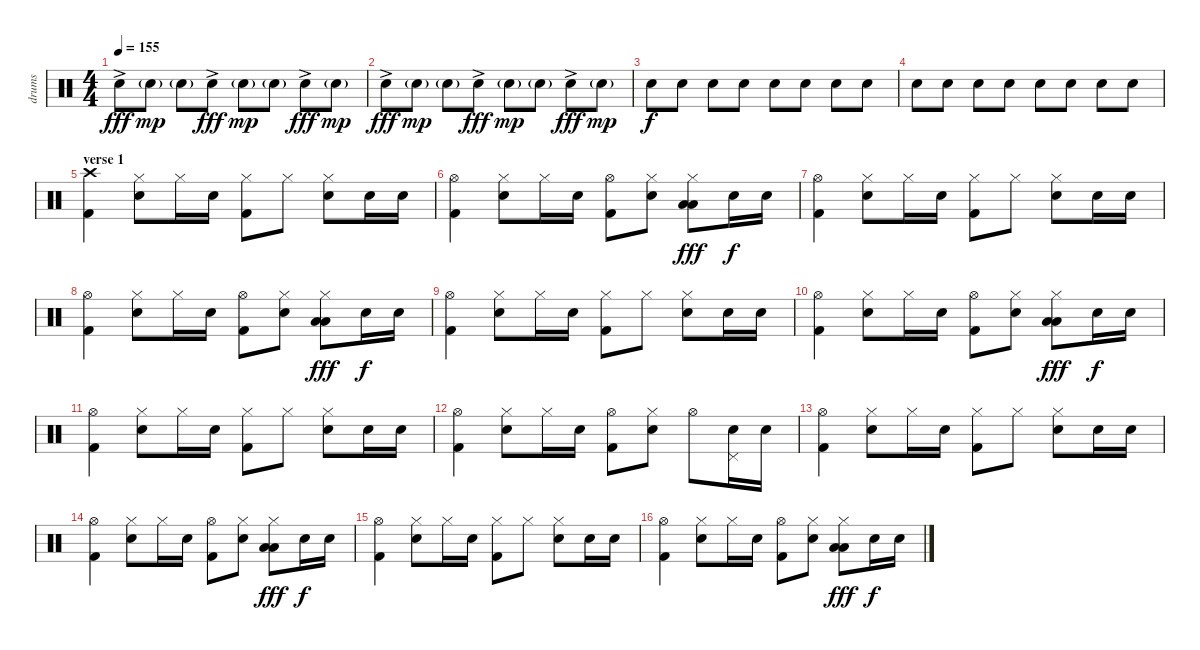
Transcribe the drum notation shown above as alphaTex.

\track ("drums" "drums") {instrument percussion}
\staff {score}
\articulation defaults
\ts (4 4)
\tempo 155
\clef neutral
\ks c "Electric Snare (hit)"{ac}.8{dy fff} "Electric Snare (hit)"{g}.8{dy mp} "Electric Snare (hit)"{g}.8 "Electric Snare (hit)"{ac}.8{dy fff} "Electric Snare (hit)"{g}.8{dy mp} "Electric Snare (hit)"{g}.8 "Electric Snare (hit)"{ac}.8{dy fff} "Electric Snare (hit)"{g}.8{dy mp}
|
"Electric Snare (hit)"{ac}.8{dy fff} "Electric Snare (hit)"{g}.8{dy mp} "Electric Snare (hit)"{g}.8 "Electric Snare (hit)"{ac}.8{dy fff} "Electric Snare (hit)"{g}.8{dy mp} "Electric Snare (hit)"{g}.8 "Electric Snare (hit)"{ac}.8{dy fff} "Electric Snare (hit)"{g}.8{dy mp} |
"Electric Snare (hit)".8{dy f volume 7} "Electric Snare (hit)".8{volume 16} "Electric Snare (hit)".8 "Electric Snare (hit)".8 "Electric Snare (hit)".8 "Electric Snare (hit)".8 "Electric Snare (hit)".8 "Electric Snare (hit)".8 |
"Electric Snare (hit)".8 "Electric Snare (hit)".8 "Electric Snare (hit)".8 "Electric Snare (hit)".8 "Electric Snare (hit)".8 "Electric Snare (hit)".8 "Electric Snare (hit)".8 "Electric Snare (hit)".8 |
\section ("" "verse 1")
("Crash high (hit)" "Kick (hit) 2").4{volume 13} ("Electric Snare (hit)" "Hi-Hat (closed)").8 "Hi-Hat (closed)".16 "Electric Snare (hit)".16 ("Kick (hit) 2" "Hi-Hat (closed)").8 "Hi-Hat (closed)".8 ("Electric Snare (hit)" "Hi-Hat (closed)").8 "Electric Snare (hit)".16 "Electric Snare (hit)".16 |
("Hi-Hat (open)" "Kick (hit) 2").4 ("Electric Snare (hit)" "Hi-Hat (closed)").8 "Hi-Hat (closed)".16 "Electric Snare (hit)".16 ("Kick (hit) 2" "Hi-Hat (open)").8 ("Electric Snare (hit)" "Hi-Hat (closed)").8 ("Low Floor Tom (hit)" "Low Tom (hit)" "Hi-Hat (closed)").8{dy fff} "Electric Snare (hit)".16{dy f} "Electric Snare (hit)".16 |
("Kick (hit) 2" "Hi-Hat (open)").4 ("Electric Snare (hit)" "Hi-Hat (closed)").8 "Hi-Hat (closed)".16 "Electric Snare (hit)".16 ("Kick (hit) 2" "Hi-Hat (closed)").8 "Hi-Hat (closed)".8 ("Electric Snare (hit)" "Hi-Hat (closed)").8 "Electric Snare (hit)".16 "Electric Snare (hit)".16 |
("Hi-Hat (open)" "Kick (hit) 2").4 ("Electric Snare (hit)" "Hi-Hat (closed)").8 "Hi-Hat (closed)".16 "Electric Snare (hit)".16 ("Kick (hit) 2" "Hi-Hat (open)").8 ("Electric Snare (hit)" "Hi-Hat (closed)").8 ("Low Floor Tom (hit)" "Low Tom (hit)" "Hi-Hat (closed)").8{dy fff} "Electric Snare (hit)".16{dy f} "Electric Snare (hit)".16 |
("Kick (hit) 2" "Hi-Hat (open)").4 ("Electric Snare (hit)" "Hi-Hat (closed)").8 "Hi-Hat (closed)".16 "Electric Snare (hit)".16 ("Kick (hit) 2" "Hi-Hat (closed)").8 "Hi-Hat (closed)".8 ("Electric Snare (hit)" "Hi-Hat (closed)").8 "Electric Snare (hit)".16 "Electric Snare (hit)".16 |
("Hi-Hat (open)" "Kick (hit) 2").4 ("Electric Snare (hit)" "Hi-Hat (closed)").8 "Hi-Hat (closed)".16 "Electric Snare (hit)".16 ("Kick (hit) 2" "Hi-Hat (open)").8 ("Electric Snare (hit)" "Hi-Hat (closed)").8 ("Low Floor Tom (hit)" "Low Tom (hit)" "Hi-Hat (closed)").8{dy fff} "Electric Snare (hit)".16{dy f} "Electric Snare (hit)".16 |
("Kick (hit) 2" "Hi-Hat (open)").4 ("Electric Snare (hit)" "Hi-Hat (closed)").8 "Hi-Hat (closed)".16 "Electric Snare (hit)".16 ("Kick (hit) 2" "Hi-Hat (closed)").8 "Hi-Hat (closed)".8 ("Electric Snare (hit)" "Hi-Hat (closed)").8 "Electric Snare (hit)".16 "Electric Snare (hit)".16 |
("Hi-Hat (open)" "Kick (hit) 2").4 ("Electric Snare (hit)" "Hi-Hat (closed)").8 "Hi-Hat (closed)".16 "Electric Snare (hit)".16 ("Kick (hit) 2" "Hi-Hat (open)").8 ("Electric Snare (hit)" "Hi-Hat (closed)").8 "Hi-Hat (open)".8 ("Electric Snare (hit)" "Pedal Hi-Hat (hit)").16 "Electric Snare (hit)".16 |
("Kick (hit) 2" "Hi-Hat (open)").4 ("Electric Snare (hit)" "Hi-Hat (closed)").8 "Hi-Hat (closed)".16 "Electric Snare (hit)".16 ("Kick (hit) 2" "Hi-Hat (closed)").8 "Hi-Hat (closed)".8 ("Electric Snare (hit)" "Hi-Hat (closed)").8 "Electric Snare (hit)".16 "Electric Snare (hit)".16 |
("Hi-Hat (open)" "Kick (hit) 2").4 ("Electric Snare (hit)" "Hi-Hat (closed)").8 "Hi-Hat (closed)".16 "Electric Snare (hit)".16 ("Kick (hit) 2" "Hi-Hat (open)").8 ("Electric Snare (hit)" "Hi-Hat (closed)").8 ("Low Floor Tom (hit)" "Low Tom (hit)" "Hi-Hat (closed)").8{dy fff} "Electric Snare (hit)".16{dy f} "Electric Snare (hit)".16 |
("Kick (hit) 2" "Hi-Hat (open)").4 ("Electric Snare (hit)" "Hi-Hat (closed)").8 "Hi-Hat (closed)".16 "Electric Snare (hit)".16 ("Kick (hit) 2" "Hi-Hat (closed)").8 "Hi-Hat (closed)".8 ("Electric Snare (hit)" "Hi-Hat (closed)").8 "Electric Snare (hit)".16 "Electric Snare (hit)".16 |
("Hi-Hat (open)" "Kick (hit) 2").4 ("Electric Snare (hit)" "Hi-Hat (closed)").8 "Hi-Hat (closed)".16 "Electric Snare (hit)".16 ("Kick (hit) 2" "Hi-Hat (open)").8 ("Electric Snare (hit)" "Hi-Hat (closed)").8 ("Low Floor Tom (hit)" "Low Tom (hit)" "Hi-Hat (closed)").8{dy fff} "Electric Snare (hit)".16{dy f} "Electric Snare (hit)".16
